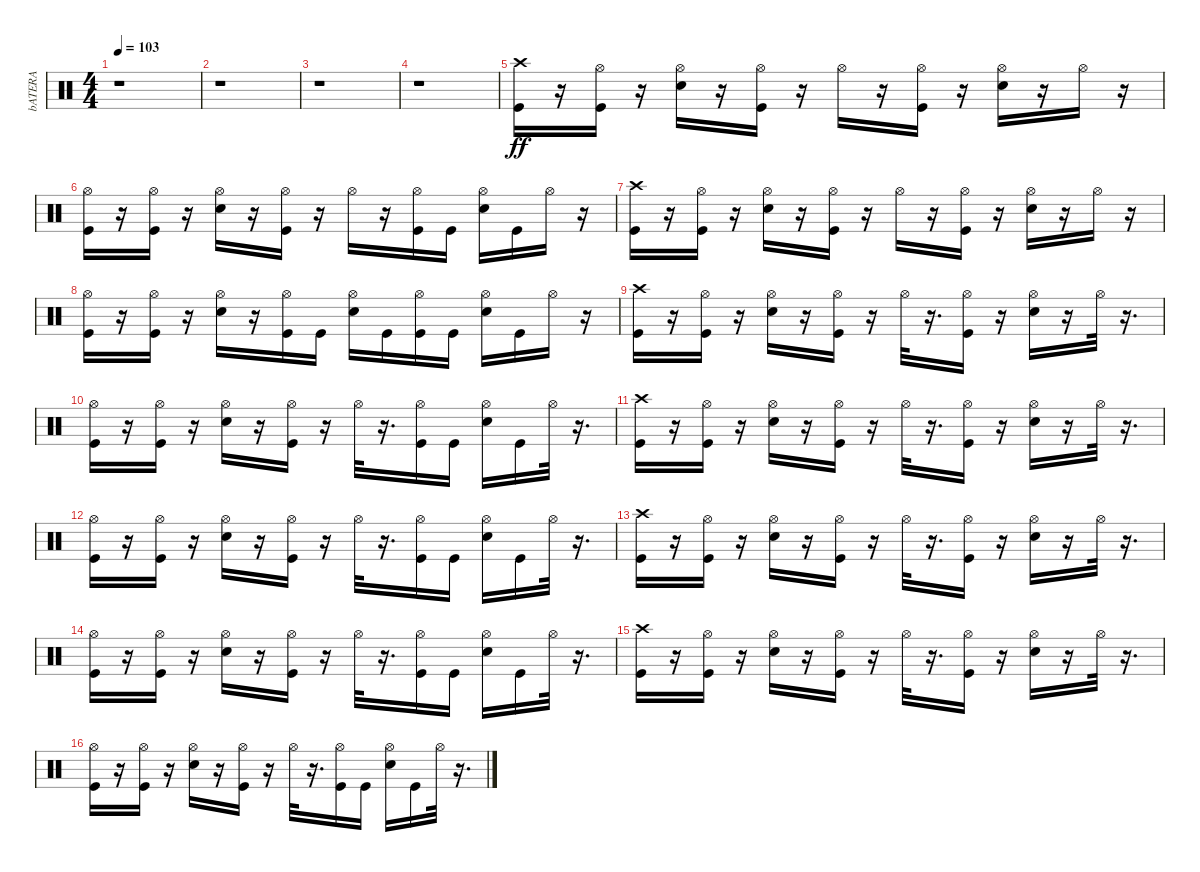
\track ("bATERA" "bATERA") {instrument percussion}
\staff {score}
\articulation defaults
\ts (4 4)
\tempo 103
\clef neutral
\ks c
r.1{dy ff} |
r.1 |
r.1 |
r.1 |
("Crash high (hit)" "Kick (hit)").16 r.16 ("Kick (hit)" "Hi-Hat (open)").16 r.16 ("Snare (hit) 2" "Hi-Hat (open)").16 r.16 ("Kick (hit)" "Hi-Hat (open)").16 r.16 "Hi-Hat (open)".16 r.16 ("Kick (hit)" "Hi-Hat (open)").16 r.16 ("Hi-Hat (open)" "Snare (hit) 2").16 r.16 "Hi-Hat (open)".16 r.16 |
("Kick (hit)" "Hi-Hat (open)").16 r.16 ("Kick (hit)" "Hi-Hat (open)").16 r.16 ("Snare (hit) 2" "Hi-Hat (open)").16 r.16 ("Kick (hit)" "Hi-Hat (open)").16 r.16 "Hi-Hat (open)".16 r.16 ("Kick (hit)" "Hi-Hat (open)").16 "Kick (hit)".16 ("Hi-Hat (open)" "Snare (hit) 2").16 "Kick (hit)".16 "Hi-Hat (open)".16 r.16 |
("Kick (hit)" "Crash high (hit)").16 r.16 ("Kick (hit)" "Hi-Hat (open)").16 r.16 ("Snare (hit) 2" "Hi-Hat (open)").16 r.16 ("Kick (hit)" "Hi-Hat (open)").16 r.16 "Hi-Hat (open)".16 r.16 ("Kick (hit)" "Hi-Hat (open)").16 r.16 ("Hi-Hat (open)" "Snare (hit) 2").16 r.16 "Hi-Hat (open)".16 r.16 |
("Kick (hit)" "Hi-Hat (open)").16 r.16 ("Kick (hit)" "Hi-Hat (open)").16 r.16 ("Snare (hit) 2" "Hi-Hat (open)").16 r.16 ("Kick (hit)" "Hi-Hat (open)").16 "Kick (hit)".16 ("Hi-Hat (open)" "Snare (hit) 2").16 "Kick (hit)".16 ("Kick (hit)" "Hi-Hat (open)").16 "Kick (hit)".16 ("Hi-Hat (open)" "Snare (hit) 2").16 "Kick (hit)".16 "Hi-Hat (open)".16 r.16 |
("Crash high (hit)" "Kick (hit)").16 r.16 ("Kick (hit)" "Hi-Hat (open)").16 r.16 ("Snare (hit) 2" "Hi-Hat (open)").16 r.16 ("Kick (hit)" "Hi-Hat (open)").16 r.16 "Hi-Hat (open)".32 r.16{d} ("Kick (hit)" "Hi-Hat (open)").16 r.16 ("Snare (hit) 2" "Hi-Hat (open)").16 r.16 "Hi-Hat (open)".32 r.16{d} |
("Kick (hit)" "Hi-Hat (open)").16 r.16 ("Kick (hit)" "Hi-Hat (open)").16 r.16 ("Snare (hit) 2" "Hi-Hat (open)").16 r.16 ("Kick (hit)" "Hi-Hat (open)").16 r.16 "Hi-Hat (open)".32 r.16{d} ("Kick (hit)" "Hi-Hat (open)").16 "Kick (hit)".16 ("Snare (hit) 2" "Hi-Hat (open)").16 "Kick (hit)".16 "Hi-Hat (open)".32 r.16{d} |
("Kick (hit)" "Crash high (hit)").16 r.16 ("Kick (hit)" "Hi-Hat (open)").16 r.16 ("Snare (hit) 2" "Hi-Hat (open)").16 r.16 ("Kick (hit)" "Hi-Hat (open)").16 r.16 "Hi-Hat (open)".32 r.16{d} ("Kick (hit)" "Hi-Hat (open)").16 r.16 ("Snare (hit) 2" "Hi-Hat (open)").16 r.16 "Hi-Hat (open)".32 r.16{d} |
("Kick (hit)" "Hi-Hat (open)").16 r.16 ("Kick (hit)" "Hi-Hat (open)").16 r.16 ("Snare (hit) 2" "Hi-Hat (open)").16 r.16 ("Kick (hit)" "Hi-Hat (open)").16 r.16 "Hi-Hat (open)".32 r.16{d} ("Kick (hit)" "Hi-Hat (open)").16 "Kick (hit)".16 ("Snare (hit) 2" "Hi-Hat (open)").16 "Kick (hit)".16 "Hi-Hat (open)".32 r.16{d} |
("Crash high (hit)" "Kick (hit)").16 r.16 ("Kick (hit)" "Hi-Hat (open)").16 r.16 ("Snare (hit) 2" "Hi-Hat (open)").16 r.16 ("Kick (hit)" "Hi-Hat (open)").16 r.16 "Hi-Hat (open)".32 r.16{d} ("Kick (hit)" "Hi-Hat (open)").16 r.16 ("Snare (hit) 2" "Hi-Hat (open)").16 r.16 "Hi-Hat (open)".32 r.16{d} |
("Kick (hit)" "Hi-Hat (open)").16 r.16 ("Kick (hit)" "Hi-Hat (open)").16 r.16 ("Snare (hit) 2" "Hi-Hat (open)").16 r.16 ("Kick (hit)" "Hi-Hat (open)").16 r.16 "Hi-Hat (open)".32 r.16{d} ("Kick (hit)" "Hi-Hat (open)").16 "Kick (hit)".16 ("Snare (hit) 2" "Hi-Hat (open)").16 "Kick (hit)".16 "Hi-Hat (open)".32 r.16{d} |
("Kick (hit)" "Crash high (hit)").16 r.16 ("Kick (hit)" "Hi-Hat (open)").16 r.16 ("Snare (hit) 2" "Hi-Hat (open)").16 r.16 ("Kick (hit)" "Hi-Hat (open)").16 r.16 "Hi-Hat (open)".32 r.16{d} ("Kick (hit)" "Hi-Hat (open)").16 r.16 ("Snare (hit) 2" "Hi-Hat (open)").16 r.16 "Hi-Hat (open)".32 r.16{d} |
("Kick (hit)" "Hi-Hat (open)").16 r.16 ("Kick (hit)" "Hi-Hat (open)").16 r.16 ("Snare (hit) 2" "Hi-Hat (open)").16 r.16 ("Kick (hit)" "Hi-Hat (open)").16 r.16 "Hi-Hat (open)".32 r.16{d} ("Kick (hit)" "Hi-Hat (open)").16 "Kick (hit)".16 ("Snare (hit) 2" "Hi-Hat (open)").16 "Kick (hit)".16 "Hi-Hat (open)".32 r.16{d}
